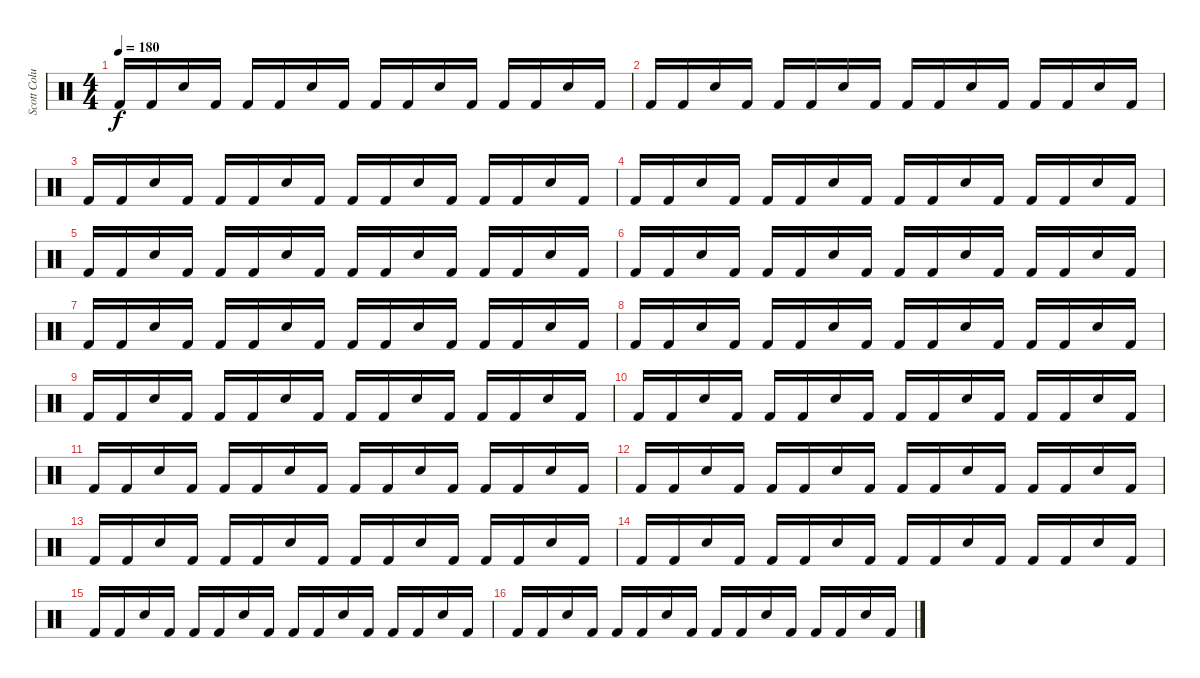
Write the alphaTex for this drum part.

\track ("Scott Columbus" "Scott Colu") {instrument percussion}
\staff {score}
\articulation defaults
\ts (4 4)
\tempo 180
\clef neutral
\ks c "Kick (hit) 2".16{dy f} "Kick (hit) 2".16 "Snare (hit) 2".16 "Kick (hit) 2".16 "Kick (hit) 2".16 "Kick (hit) 2".16 "Snare (hit) 2".16 "Kick (hit) 2".16 "Kick (hit) 2".16 "Kick (hit) 2".16 "Snare (hit) 2".16 "Kick (hit) 2".16 "Kick (hit) 2".16 "Kick (hit) 2".16 "Snare (hit) 2".16 "Kick (hit) 2".16
|
"Kick (hit) 2".16 "Kick (hit) 2".16 "Snare (hit) 2".16 "Kick (hit) 2".16 "Kick (hit) 2".16 "Kick (hit) 2".16 "Snare (hit) 2".16 "Kick (hit) 2".16 "Kick (hit) 2".16 "Kick (hit) 2".16 "Snare (hit) 2".16 "Kick (hit) 2".16 "Kick (hit) 2".16 "Kick (hit) 2".16 "Snare (hit) 2".16 "Kick (hit) 2".16 |
"Kick (hit) 2".16 "Kick (hit) 2".16 "Snare (hit) 2".16 "Kick (hit) 2".16 "Kick (hit) 2".16 "Kick (hit) 2".16 "Snare (hit) 2".16 "Kick (hit) 2".16 "Kick (hit) 2".16 "Kick (hit) 2".16 "Snare (hit) 2".16 "Kick (hit) 2".16 "Kick (hit) 2".16 "Kick (hit) 2".16 "Snare (hit) 2".16 "Kick (hit) 2".16 |
"Kick (hit) 2".16 "Kick (hit) 2".16 "Snare (hit) 2".16 "Kick (hit) 2".16 "Kick (hit) 2".16 "Kick (hit) 2".16 "Snare (hit) 2".16 "Kick (hit) 2".16 "Kick (hit) 2".16 "Kick (hit) 2".16 "Snare (hit) 2".16 "Kick (hit) 2".16 "Kick (hit) 2".16 "Kick (hit) 2".16 "Snare (hit) 2".16 "Kick (hit) 2".16 |
"Kick (hit) 2".16 "Kick (hit) 2".16 "Snare (hit) 2".16 "Kick (hit) 2".16 "Kick (hit) 2".16 "Kick (hit) 2".16 "Snare (hit) 2".16 "Kick (hit) 2".16 "Kick (hit) 2".16 "Kick (hit) 2".16 "Snare (hit) 2".16 "Kick (hit) 2".16 "Kick (hit) 2".16 "Kick (hit) 2".16 "Snare (hit) 2".16 "Kick (hit) 2".16 |
"Kick (hit) 2".16 "Kick (hit) 2".16 "Snare (hit) 2".16 "Kick (hit) 2".16 "Kick (hit) 2".16 "Kick (hit) 2".16 "Snare (hit) 2".16 "Kick (hit) 2".16 "Kick (hit) 2".16 "Kick (hit) 2".16 "Snare (hit) 2".16 "Kick (hit) 2".16 "Kick (hit) 2".16 "Kick (hit) 2".16 "Snare (hit) 2".16 "Kick (hit) 2".16 |
"Kick (hit) 2".16 "Kick (hit) 2".16 "Snare (hit) 2".16 "Kick (hit) 2".16 "Kick (hit) 2".16 "Kick (hit) 2".16 "Snare (hit) 2".16 "Kick (hit) 2".16 "Kick (hit) 2".16 "Kick (hit) 2".16 "Snare (hit) 2".16 "Kick (hit) 2".16 "Kick (hit) 2".16 "Kick (hit) 2".16 "Snare (hit) 2".16 "Kick (hit) 2".16 |
"Kick (hit) 2".16 "Kick (hit) 2".16 "Snare (hit) 2".16 "Kick (hit) 2".16 "Kick (hit) 2".16 "Kick (hit) 2".16 "Snare (hit) 2".16 "Kick (hit) 2".16 "Kick (hit) 2".16 "Kick (hit) 2".16 "Snare (hit) 2".16 "Kick (hit) 2".16 "Kick (hit) 2".16 "Kick (hit) 2".16 "Snare (hit) 2".16 "Kick (hit) 2".16 |
"Kick (hit) 2".16 "Kick (hit) 2".16 "Snare (hit) 2".16 "Kick (hit) 2".16 "Kick (hit) 2".16 "Kick (hit) 2".16 "Snare (hit) 2".16 "Kick (hit) 2".16 "Kick (hit) 2".16 "Kick (hit) 2".16 "Snare (hit) 2".16 "Kick (hit) 2".16 "Kick (hit) 2".16 "Kick (hit) 2".16 "Snare (hit) 2".16 "Kick (hit) 2".16 |
"Kick (hit) 2".16 "Kick (hit) 2".16 "Snare (hit) 2".16 "Kick (hit) 2".16 "Kick (hit) 2".16 "Kick (hit) 2".16 "Snare (hit) 2".16 "Kick (hit) 2".16 "Kick (hit) 2".16 "Kick (hit) 2".16 "Snare (hit) 2".16 "Kick (hit) 2".16 "Kick (hit) 2".16 "Kick (hit) 2".16 "Snare (hit) 2".16 "Kick (hit) 2".16 |
"Kick (hit) 2".16 "Kick (hit) 2".16 "Snare (hit) 2".16 "Kick (hit) 2".16 "Kick (hit) 2".16 "Kick (hit) 2".16 "Snare (hit) 2".16 "Kick (hit) 2".16 "Kick (hit) 2".16 "Kick (hit) 2".16 "Snare (hit) 2".16 "Kick (hit) 2".16 "Kick (hit) 2".16 "Kick (hit) 2".16 "Snare (hit) 2".16 "Kick (hit) 2".16 |
"Kick (hit) 2".16 "Kick (hit) 2".16 "Snare (hit) 2".16 "Kick (hit) 2".16 "Kick (hit) 2".16 "Kick (hit) 2".16 "Snare (hit) 2".16 "Kick (hit) 2".16 "Kick (hit) 2".16 "Kick (hit) 2".16 "Snare (hit) 2".16 "Kick (hit) 2".16 "Kick (hit) 2".16 "Kick (hit) 2".16 "Snare (hit) 2".16 "Kick (hit) 2".16 |
"Kick (hit) 2".16 "Kick (hit) 2".16 "Snare (hit) 2".16 "Kick (hit) 2".16 "Kick (hit) 2".16 "Kick (hit) 2".16 "Snare (hit) 2".16 "Kick (hit) 2".16 "Kick (hit) 2".16 "Kick (hit) 2".16 "Snare (hit) 2".16 "Kick (hit) 2".16 "Kick (hit) 2".16 "Kick (hit) 2".16 "Snare (hit) 2".16 "Kick (hit) 2".16 |
"Kick (hit) 2".16 "Kick (hit) 2".16 "Snare (hit) 2".16 "Kick (hit) 2".16 "Kick (hit) 2".16 "Kick (hit) 2".16 "Snare (hit) 2".16 "Kick (hit) 2".16 "Kick (hit) 2".16 "Kick (hit) 2".16 "Snare (hit) 2".16 "Kick (hit) 2".16 "Kick (hit) 2".16 "Kick (hit) 2".16 "Snare (hit) 2".16 "Kick (hit) 2".16 |
"Kick (hit) 2".16 "Kick (hit) 2".16 "Snare (hit) 2".16 "Kick (hit) 2".16 "Kick (hit) 2".16 "Kick (hit) 2".16 "Snare (hit) 2".16 "Kick (hit) 2".16 "Kick (hit) 2".16 "Kick (hit) 2".16 "Snare (hit) 2".16 "Kick (hit) 2".16 "Kick (hit) 2".16 "Kick (hit) 2".16 "Snare (hit) 2".16 "Kick (hit) 2".16 |
"Kick (hit) 2".16 "Kick (hit) 2".16 "Snare (hit) 2".16 "Kick (hit) 2".16 "Kick (hit) 2".16 "Kick (hit) 2".16 "Snare (hit) 2".16 "Kick (hit) 2".16 "Kick (hit) 2".16 "Kick (hit) 2".16 "Snare (hit) 2".16 "Kick (hit) 2".16 "Kick (hit) 2".16 "Kick (hit) 2".16 "Snare (hit) 2".16 "Kick (hit) 2".16
